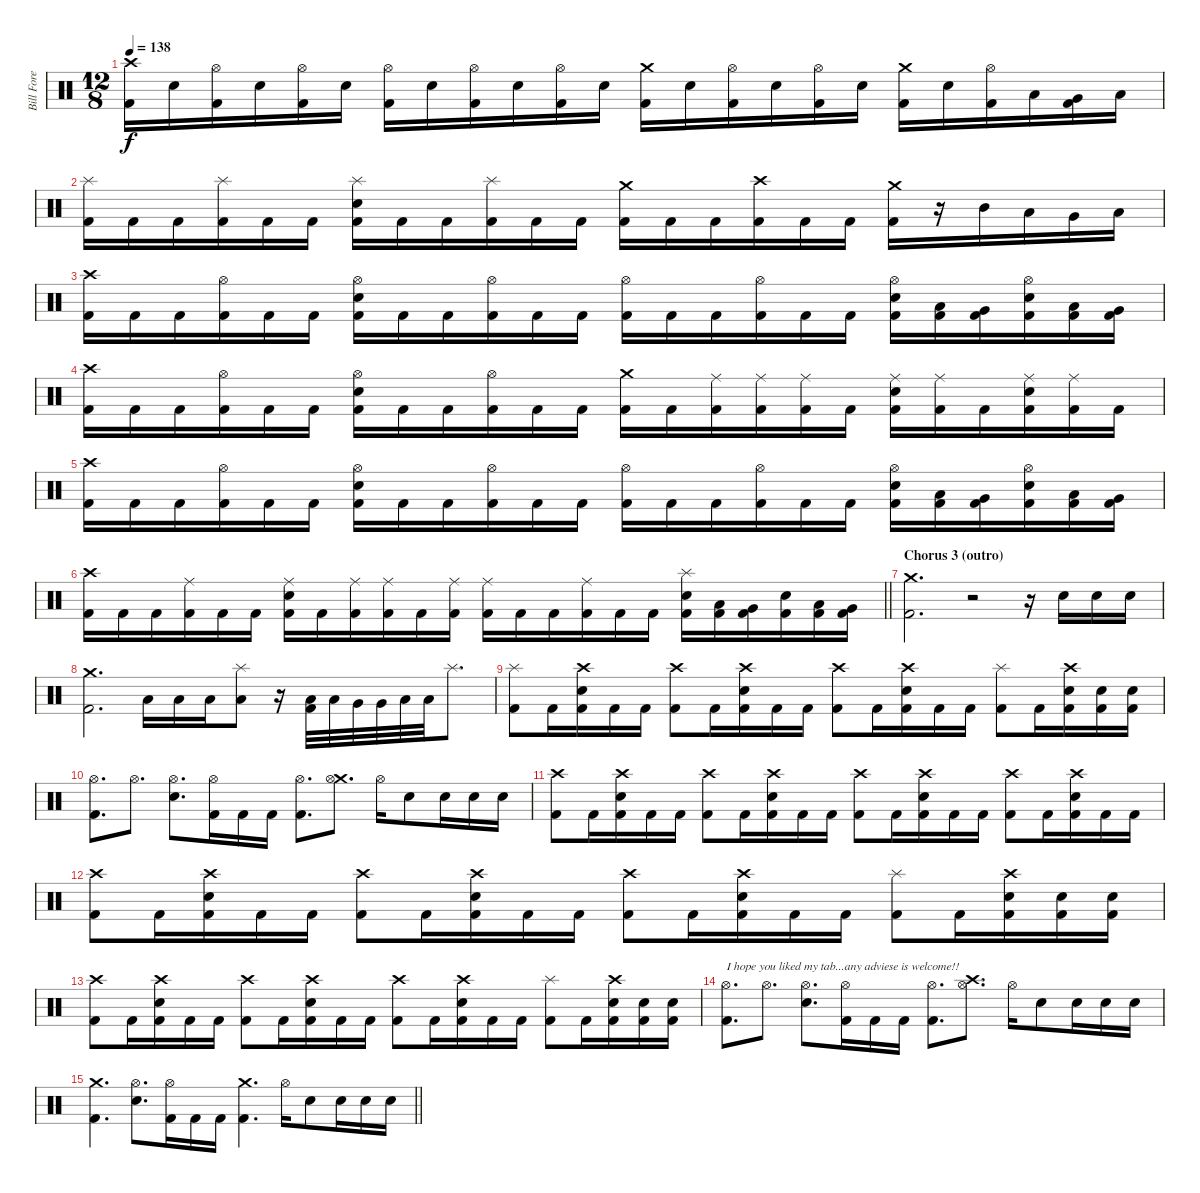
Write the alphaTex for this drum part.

\track ("Bill Fore" "Bill Fore") {instrument percussion}
\staff {score}
\articulation defaults
\ts (12 8)
\tempo 138
\clef neutral
\ks c
("Crash high (hit)" "Kick (hit) 2").16{dy f} "Electric Snare (hit)".16 ("Hi-Hat (open)" "Kick (hit) 2").16 "Electric Snare (hit)".16 ("Hi-Hat (open)" "Kick (hit) 2").16 "Electric Snare (hit)".16 ("Hi-Hat (open)" "Kick (hit) 2").16 "Electric Snare (hit)".16 ("Hi-Hat (open)" "Kick (hit) 2").16 "Electric Snare (hit)".16 ("Hi-Hat (open)" "Kick (hit) 2").16 "Electric Snare (hit)".16 ("Crash medium (hit)" "Kick (hit) 2").16 "Electric Snare (hit)".16 ("Hi-Hat (open)" "Kick (hit) 2").16 "Electric Snare (hit)".16 ("Hi-Hat (open)" "Kick (hit) 2").16 "Electric Snare (hit)".16 ("Crash medium (hit)" "Kick (hit) 2").16 "Electric Snare (hit)".16 ("Hi-Hat (open)" "Kick (hit) 2").16 "Low Tom (hit)".16 ("Very Low Tom (hit)" "Kick (hit) 2").16 "Low Floor Tom (hit)".16 |
("Splash (hit)" "Kick (hit) 2").16 "Kick (hit) 2".16 "Kick (hit) 2".16 ("Splash (hit)" "Kick (hit) 2").16 "Kick (hit) 2".16 "Kick (hit) 2".16 ("Splash (hit)" "Electric Snare (hit)" "Kick (hit) 2").16 "Kick (hit) 2".16 "Kick (hit) 2".16 ("Splash (hit)" "Kick (hit) 2").16 "Kick (hit) 2".16 "Kick (hit) 2".16 ("Crash medium (hit)" "Kick (hit) 2").16 "Kick (hit) 2".16 "Kick (hit) 2".16 ("Crash high (hit)" "Kick (hit) 2").16 "Kick (hit) 2".16 "Kick (hit) 2".16 ("Crash medium (hit)" "Kick (hit) 2").16 r.16 "Mid Tom (hit)".16 "Low Tom (hit)".16 "Very Low Tom (hit)".16 "Low Floor Tom (hit)".16 |
("Crash high (hit)" "Kick (hit) 2").16 "Kick (hit) 2".16 "Kick (hit) 2".16 ("Hi-Hat (open)" "Kick (hit) 2").16 "Kick (hit) 2".16 "Kick (hit) 2".16 ("Hi-Hat (open)" "Electric Snare (hit)" "Kick (hit) 2").16 "Kick (hit) 2".16 "Kick (hit) 2".16 ("Hi-Hat (open)" "Kick (hit) 2").16 "Kick (hit) 2".16 "Kick (hit) 2".16 ("Hi-Hat (open)" "Kick (hit) 2").16 "Kick (hit) 2".16 "Kick (hit) 2".16 ("Hi-Hat (open)" "Kick (hit) 2").16 "Kick (hit) 2".16 "Kick (hit) 2".16 ("Hi-Hat (open)" "Electric Snare (hit)" "Kick (hit) 2").16 ("Low Tom (hit)" "Kick (hit) 2").16 ("Very Low Tom (hit)" "Kick (hit) 2").16 ("Hi-Hat (open)" "Electric Snare (hit)" "Kick (hit) 2").16 ("Low Tom (hit)" "Kick (hit) 2").16 ("Very Low Tom (hit)" "Kick (hit) 2").16 |
("Crash high (hit)" "Kick (hit) 2").16 "Kick (hit) 2".16 "Kick (hit) 2".16 ("Hi-Hat (open)" "Kick (hit) 2").16 "Kick (hit) 2".16 "Kick (hit) 2".16 ("Hi-Hat (open)" "Electric Snare (hit)" "Kick (hit) 2").16 "Kick (hit) 2".16 "Kick (hit) 2".16 ("Hi-Hat (open)" "Kick (hit) 2").16 "Kick (hit) 2".16 "Kick (hit) 2".16 ("Crash medium (hit)" "Kick (hit) 2").16 "Kick (hit) 2".16 ("Ride (middle)" "Kick (hit) 2").16 ("Ride (middle)" "Kick (hit) 2").16 ("Ride (middle)" "Kick (hit) 2").16 "Kick (hit) 2".16 ("Ride (middle)" "Electric Snare (hit)" "Kick (hit) 2").16 ("Ride (middle)" "Kick (hit) 2").16 "Kick (hit) 2".16 ("Ride (middle)" "Electric Snare (hit)" "Kick (hit) 2").16 ("Ride (middle)" "Kick (hit) 2").16 "Kick (hit) 2".16 |
("Crash high (hit)" "Kick (hit) 2").16 "Kick (hit) 2".16 "Kick (hit) 2".16 ("Hi-Hat (open)" "Kick (hit) 2").16 "Kick (hit) 2".16 "Kick (hit) 2".16 ("Hi-Hat (open)" "Electric Snare (hit)" "Kick (hit) 2").16 "Kick (hit) 2".16 "Kick (hit) 2".16 ("Hi-Hat (open)" "Kick (hit) 2").16 "Kick (hit) 2".16 "Kick (hit) 2".16 ("Hi-Hat (open)" "Kick (hit) 2").16 "Kick (hit) 2".16 "Kick (hit) 2".16 ("Hi-Hat (open)" "Kick (hit) 2").16 "Kick (hit) 2".16 "Kick (hit) 2".16 ("Hi-Hat (open)" "Electric Snare (hit)" "Kick (hit) 2").16 ("Low Tom (hit)" "Kick (hit) 2").16 ("Very Low Tom (hit)" "Kick (hit) 2").16 ("Hi-Hat (open)" "Electric Snare (hit)" "Kick (hit) 2").16 ("Low Tom (hit)" "Kick (hit) 2").16 ("Very Low Tom (hit)" "Kick (hit) 2").16 |
\barLineRight lightlight
("Crash high (hit)" "Kick (hit) 2").16 "Kick (hit) 2".16 "Kick (hit) 2".16 ("Ride (middle)" "Kick (hit) 2").16 "Kick (hit) 2".16 "Kick (hit) 2".16 ("Ride (middle)" "Electric Snare (hit)" "Kick (hit) 2").16 "Kick (hit) 2".16 ("Ride (middle)" "Kick (hit) 2").16 ("Ride (middle)" "Kick (hit) 2").16 "Kick (hit) 2".16 ("Ride (middle)" "Kick (hit) 2").16 ("Ride (middle)" "Kick (hit) 2").16 "Kick (hit) 2".16 "Kick (hit) 2".16 ("Ride (middle)" "Kick (hit) 2").16 "Kick (hit) 2".16 "Kick (hit) 2".16 ("Splash (hit)" "Electric Snare (hit)" "Kick (hit) 2").16 ("Low Tom (hit)" "Kick (hit) 2").16 ("Very Low Tom (hit)" "Kick (hit) 2").16 ("Electric Snare (hit)" "Kick (hit) 2").16 ("Low Tom (hit)" "Kick (hit) 2").16 ("Very Low Tom (hit)" "Kick (hit) 2").16 |
\section ("" "Chorus 3 (outro)")
("Crash medium (hit)" "Kick (hit) 2").2{d} r.2 r.16 "Electric Snare (hit)".16 "Electric Snare (hit)".16 "Electric Snare (hit)".16 |
("Crash medium (hit)" "Kick (hit) 2").2{d} "Low Floor Tom (hit)".16 "Low Floor Tom (hit)".16 "Low Floor Tom (hit)".16 ("Splash (hit)" "Low Floor Tom (hit)").8 r.16 ("Low Tom (hit)" "Kick (hit) 2").32 "Low Tom (hit)".32 "Very Low Tom (hit)".32 "Very Low Tom (hit)".32 "Low Floor Tom (hit)".32 "Low Floor Tom (hit)".32 "Splash (hit)".8{d} |
("Splash (hit)" "Kick (hit) 2").8 "Kick (hit) 2".16 ("Crash high (hit)" "Electric Snare (hit)" "Kick (hit) 2").16 "Kick (hit) 2".16 "Kick (hit) 2".16 ("Crash high (hit)" "Kick (hit) 2").8 "Kick (hit) 2".16 ("Crash high (hit)" "Electric Snare (hit)" "Kick (hit) 2").16 "Kick (hit) 2".16 "Kick (hit) 2".16 ("Crash high (hit)" "Kick (hit) 2").8 "Kick (hit) 2".16 ("Crash high (hit)" "Electric Snare (hit)" "Kick (hit) 2").16 "Kick (hit) 2".16 "Kick (hit) 2".16 ("Splash (hit)" "Kick (hit) 2").8 "Kick (hit) 2".16 ("Crash high (hit)" "Electric Snare (hit)" "Kick (hit) 2").16 ("Electric Snare (hit)" "Kick (hit) 2").16 ("Electric Snare (hit)" "Kick (hit) 2").16 |
("Hi-Hat (open)" "Kick (hit) 2").8{d} "Hi-Hat (open)".8{d} ("Hi-Hat (open)" "Electric Snare (hit)").8{d} ("Hi-Hat (open)" "Kick (hit) 2").16 "Kick (hit) 2".16 "Kick (hit) 2".16 ("Hi-Hat (open)" "Kick (hit) 2").8{d} ("Crash medium (hit)" "Hi-Hat (open)").8{d} "Hi-Hat (open)".16 "Electric Snare (hit)".8 "Electric Snare (hit)".16 "Electric Snare (hit)".16 "Electric Snare (hit)".16 |
("Crash high (hit)" "Kick (hit) 2").8 "Kick (hit) 2".16 ("Crash high (hit)" "Electric Snare (hit)" "Kick (hit) 2").16 "Kick (hit) 2".16 "Kick (hit) 2".16 ("Crash high (hit)" "Kick (hit) 2").8 "Kick (hit) 2".16 ("Crash high (hit)" "Electric Snare (hit)" "Kick (hit) 2").16 "Kick (hit) 2".16 "Kick (hit) 2".16 ("Crash high (hit)" "Kick (hit) 2").8 "Kick (hit) 2".16 ("Crash high (hit)" "Electric Snare (hit)" "Kick (hit) 2").16 "Kick (hit) 2".16 "Kick (hit) 2".16 ("Crash high (hit)" "Kick (hit) 2").8 "Kick (hit) 2".16 ("Crash high (hit)" "Electric Snare (hit)" "Kick (hit) 2").16 "Kick (hit) 2".16 "Kick (hit) 2".16 |
("Crash high (hit)" "Kick (hit) 2").8 "Kick (hit) 2".16 ("Crash high (hit)" "Electric Snare (hit)" "Kick (hit) 2").16 "Kick (hit) 2".16 "Kick (hit) 2".16 ("Crash high (hit)" "Kick (hit) 2").8 "Kick (hit) 2".16 ("Crash high (hit)" "Electric Snare (hit)" "Kick (hit) 2").16 "Kick (hit) 2".16 "Kick (hit) 2".16 ("Crash high (hit)" "Kick (hit) 2").8 "Kick (hit) 2".16 ("Crash high (hit)" "Electric Snare (hit)" "Kick (hit) 2").16 "Kick (hit) 2".16 "Kick (hit) 2".16 ("Splash (hit)" "Kick (hit) 2").8 "Kick (hit) 2".16 ("Crash high (hit)" "Electric Snare (hit)" "Kick (hit) 2").16 ("Electric Snare (hit)" "Kick (hit) 2").16 ("Electric Snare (hit)" "Kick (hit) 2").16 |
("Crash high (hit)" "Kick (hit) 2").8 "Kick (hit) 2".16 ("Crash high (hit)" "Electric Snare (hit)" "Kick (hit) 2").16 "Kick (hit) 2".16 "Kick (hit) 2".16 ("Crash high (hit)" "Kick (hit) 2").8 "Kick (hit) 2".16 ("Crash high (hit)" "Electric Snare (hit)" "Kick (hit) 2").16 "Kick (hit) 2".16 "Kick (hit) 2".16 ("Crash high (hit)" "Kick (hit) 2").8 "Kick (hit) 2".16 ("Crash high (hit)" "Electric Snare (hit)" "Kick (hit) 2").16 "Kick (hit) 2".16 "Kick (hit) 2".16 ("Splash (hit)" "Kick (hit) 2").8 "Kick (hit) 2".16 ("Crash high (hit)" "Electric Snare (hit)" "Kick (hit) 2").16 ("Electric Snare (hit)" "Kick (hit) 2").16 ("Electric Snare (hit)" "Kick (hit) 2").16 |
("Hi-Hat (open)" "Kick (hit) 2").8{d txt "I hope you liked my tab...any adviese is welcome!!"} "Hi-Hat (open)".8{d} ("Hi-Hat (open)" "Electric Snare (hit)").8{d} ("Hi-Hat (open)" "Kick (hit) 2").16 "Kick (hit) 2".16 "Kick (hit) 2".16 ("Hi-Hat (open)" "Kick (hit) 2").8{d} ("Crash high (hit)" "Hi-Hat (open)").8{d} "Hi-Hat (open)".16 "Electric Snare (hit)".8 "Electric Snare (hit)".16 "Electric Snare (hit)".16 "Electric Snare (hit)".16 |
\barLineRight lightlight
("Crash medium (hit)" "Kick (hit) 2").4{d} ("Hi-Hat (open)" "Electric Snare (hit)").8{d} ("Hi-Hat (open)" "Kick (hit) 2").16 "Kick (hit) 2".16 "Kick (hit) 2".16 ("Crash medium (hit)" "Kick (hit) 2").4{d} "Hi-Hat (open)".16 "Electric Snare (hit)".8 "Electric Snare (hit)".16 "Electric Snare (hit)".16 "Electric Snare (hit)".16
